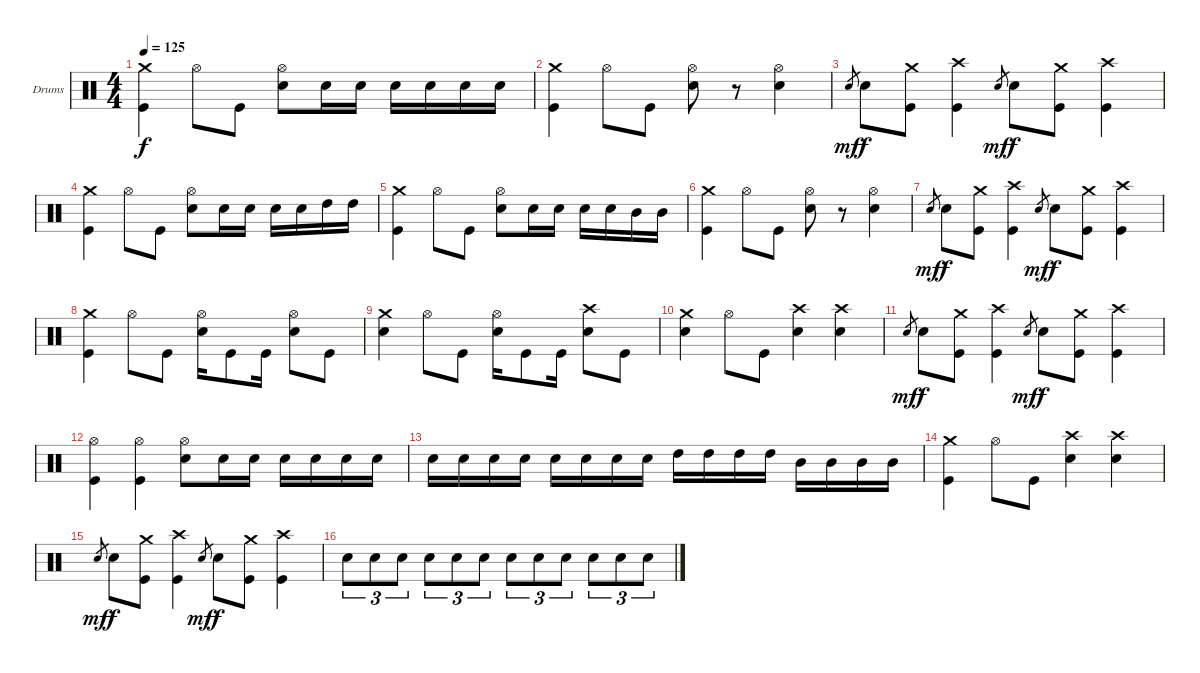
\bracketExtendMode groupsimilarinstruments
\firstSystemTrackNameOrientation horizontal
\otherSystemsTrackNameOrientation horizontal
\track ("Drumkit" "Drums") {instrument percussion}
\staff {score}
\articulation defaults
\ts (4 4)
\tempo 125
\clef neutral
\ks c
("Kick (hit)" "Crash medium (hit)").4{dy f} "Hi-Hat (open)".8 "Kick (hit)".8 ("Snare (hit) 2" "Hi-Hat (open)").8 "Snare (hit) 2".16 "Snare (hit) 2".16 "Snare (hit) 2".16 "Snare (hit) 2".16 "Snare (hit) 2".16 "Snare (hit) 2".16 |
("Kick (hit)" "Crash medium (hit)").4 "Hi-Hat (open)".8 "Kick (hit)".8 ("Snare (hit) 2" "Hi-Hat (open)").8 r.8 ("Snare (hit) 2" "Hi-Hat (open)").4 |
"Snare (hit) 2".8{gr dy mf} "Snare (hit) 2".8{dy f} ("Kick (hit)" "Crash medium (hit)").8 ("Kick (hit)" "Crash high (hit)").4 "Snare (hit) 2".8{gr dy mf} "Snare (hit) 2".8{dy f} ("Kick (hit)" "Crash medium (hit)").8 ("Kick (hit)" "Crash high (hit)").4 |
("Kick (hit)" "Crash medium (hit)").4 "Hi-Hat (open)".8 "Kick (hit)".8 ("Snare (hit) 2" "Hi-Hat (open)").8 "Snare (hit) 2".16 "Snare (hit) 2".16 "Snare (hit) 2".16 "Snare (hit) 2".16 "High Tom (hit)".16 "High Tom (hit)".16 |
("Kick (hit)" "Crash medium (hit)").4 "Hi-Hat (open)".8 "Kick (hit)".8 ("Snare (hit) 2" "Hi-Hat (open)").8 "Snare (hit) 2".16 "Snare (hit) 2".16 "Snare (hit) 2".16 "Snare (hit) 2".16 "Mid Tom (hit)".16 "Mid Tom (hit)".16 |
("Kick (hit)" "Crash medium (hit)").4 "Hi-Hat (open)".8 "Kick (hit)".8 ("Snare (hit) 2" "Hi-Hat (open)").8 r.8 ("Snare (hit) 2" "Hi-Hat (open)").4 |
"Snare (hit) 2".8{gr dy mf} "Snare (hit) 2".8{dy f} ("Kick (hit)" "Crash medium (hit)").8 ("Kick (hit)" "Crash high (hit)").4 "Snare (hit) 2".8{gr dy mf} "Snare (hit) 2".8{dy f} ("Kick (hit)" "Crash medium (hit)").8 ("Kick (hit)" "Crash high (hit)").4 |
("Kick (hit)" "Crash medium (hit)").4 "Hi-Hat (open)".8 "Kick (hit)".8 ("Snare (hit) 2" "Hi-Hat (open)").16 "Kick (hit)".8 "Kick (hit)".16 ("Snare (hit) 2" "Hi-Hat (open)").8 "Kick (hit)".8 |
("Snare (hit) 2" "Crash medium (hit)").4 "Hi-Hat (open)".8 "Kick (hit)".8 ("Snare (hit) 2" "Hi-Hat (open)").16 "Kick (hit)".8 "Kick (hit)".16 ("Snare (hit) 2" "Crash high (hit)").8 "Kick (hit)".8 |
("Snare (hit) 2" "Crash medium (hit)").4 "Hi-Hat (open)".8 "Kick (hit)".8 ("Snare (hit) 2" "Crash high (hit)").4 ("Snare (hit) 2" "Crash high (hit)").4 |
"Snare (hit) 2".8{gr dy mf} "Snare (hit) 2".8{dy f} ("Kick (hit)" "Crash medium (hit)").8 ("Kick (hit)" "Crash high (hit)").4 "Snare (hit) 2".8{gr dy mf} "Snare (hit) 2".8{dy f} ("Kick (hit)" "Crash medium (hit)").8 ("Kick (hit)" "Crash high (hit)").4 |
("Kick (hit)" "Hi-Hat (open)").4 ("Kick (hit)" "Hi-Hat (open)").4 ("Snare (hit) 2" "Hi-Hat (open)").8 "Snare (hit) 2".16 "Snare (hit) 2".16 "Snare (hit) 2".16 "Snare (hit) 2".16 "Snare (hit) 2".16 "Snare (hit) 2".16 |
"Snare (hit) 2".16 "Snare (hit) 2".16 "Snare (hit) 2".16 "Snare (hit) 2".16 "Snare (hit) 2".16 "Snare (hit) 2".16 "Snare (hit) 2".16 "Snare (hit) 2".16 "High Tom (hit)".16 "High Tom (hit)".16 "High Tom (hit)".16 "High Tom (hit)".16 "Mid Tom (hit)".16 "Mid Tom (hit)".16 "Mid Tom (hit)".16 "Mid Tom (hit)".16 |
("Kick (hit)" "Crash medium (hit)").4 "Hi-Hat (open)".8 "Kick (hit)".8 ("Snare (hit) 2" "Crash high (hit)").4 ("Snare (hit) 2" "Crash high (hit)").4 |
"Snare (hit) 2".8{gr dy mf} "Snare (hit) 2".8{dy f} ("Kick (hit)" "Crash medium (hit)").8 ("Kick (hit)" "Crash high (hit)").4 "Snare (hit) 2".8{gr dy mf} "Snare (hit) 2".8{dy f} ("Kick (hit)" "Crash medium (hit)").8 ("Kick (hit)" "Crash high (hit)").4 |
"Snare (hit) 2".8{tu (3 2)} "Snare (hit) 2".8{tu (3 2)} "Snare (hit) 2".8{tu (3 2)} "Snare (hit) 2".8{tu (3 2)} "Snare (hit) 2".8{tu (3 2)} "Snare (hit) 2".8{tu (3 2)} "Snare (hit) 2".8{tu (3 2)} "Snare (hit) 2".8{tu (3 2)} "Snare (hit) 2".8{tu (3 2)} "Snare (hit) 2".8{tu (3 2)} "Snare (hit) 2".8{tu (3 2)} "Snare (hit) 2".8{tu (3 2)}
